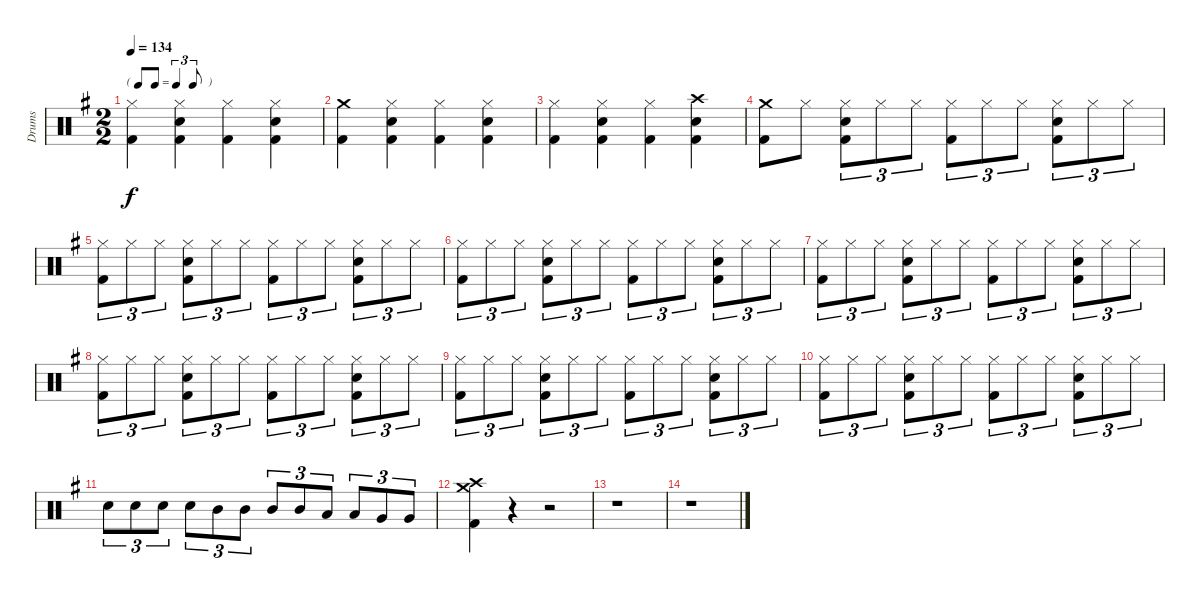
\track ("Drums" "Drums") {instrument percussion}
\staff {score}
\articulation defaults
\ts (2 2)
\tf triplet8th
\tempo 134
\clef neutral
\ks g
("Hi-Hat (closed)" "Kick (hit) 2").4{dy f} ("Hi-Hat (closed)" "Snare (hit) 2" "Kick (hit) 2").4 ("Hi-Hat (closed)" "Kick (hit) 2").4 ("Hi-Hat (closed)" "Snare (hit) 2" "Kick (hit) 2").4 |
("Crash medium (hit)" "Kick (hit) 2").4 ("Hi-Hat (closed)" "Snare (hit) 2" "Kick (hit) 2").4 ("Hi-Hat (closed)" "Kick (hit) 2").4 ("Hi-Hat (closed)" "Snare (hit) 2" "Kick (hit) 2").4 |
("Hi-Hat (closed)" "Kick (hit) 2").4 ("Hi-Hat (closed)" "Snare (hit) 2" "Kick (hit) 2").4 ("Hi-Hat (closed)" "Kick (hit) 2").4 ("Crash high (hit)" "Snare (hit) 2" "Kick (hit) 2").4 |
("Crash medium (hit)" "Kick (hit) 2").8 "Hi-Hat (closed)".8 ("Hi-Hat (closed)" "Snare (hit) 2" "Kick (hit) 2").8{tu (3 2)} "Hi-Hat (closed)".8{tu (3 2)} "Hi-Hat (closed)".8{tu (3 2)} ("Hi-Hat (closed)" "Kick (hit) 2").8{tu (3 2)} "Hi-Hat (closed)".8{tu (3 2)} "Hi-Hat (closed)".8{tu (3 2)} ("Hi-Hat (closed)" "Snare (hit) 2" "Kick (hit) 2").8{tu (3 2)} "Hi-Hat (closed)".8{tu (3 2)} "Hi-Hat (closed)".8{tu (3 2)} |
("Hi-Hat (closed)" "Kick (hit) 2").8{tu (3 2)} "Hi-Hat (closed)".8{tu (3 2)} "Hi-Hat (closed)".8{tu (3 2)} ("Hi-Hat (closed)" "Snare (hit) 2" "Kick (hit) 2").8{tu (3 2)} "Hi-Hat (closed)".8{tu (3 2)} "Hi-Hat (closed)".8{tu (3 2)} ("Hi-Hat (closed)" "Kick (hit) 2").8{tu (3 2)} "Hi-Hat (closed)".8{tu (3 2)} "Hi-Hat (closed)".8{tu (3 2)} ("Hi-Hat (closed)" "Snare (hit) 2" "Kick (hit) 2").8{tu (3 2)} "Hi-Hat (closed)".8{tu (3 2)} "Hi-Hat (closed)".8{tu (3 2)} |
("Hi-Hat (closed)" "Kick (hit) 2").8{tu (3 2)} "Hi-Hat (closed)".8{tu (3 2)} "Hi-Hat (closed)".8{tu (3 2)} ("Hi-Hat (closed)" "Snare (hit) 2" "Kick (hit) 2").8{tu (3 2)} "Hi-Hat (closed)".8{tu (3 2)} "Hi-Hat (closed)".8{tu (3 2)} ("Hi-Hat (closed)" "Kick (hit) 2").8{tu (3 2)} "Hi-Hat (closed)".8{tu (3 2)} "Hi-Hat (closed)".8{tu (3 2)} ("Hi-Hat (closed)" "Snare (hit) 2" "Kick (hit) 2").8{tu (3 2)} "Hi-Hat (closed)".8{tu (3 2)} "Hi-Hat (closed)".8{tu (3 2)} |
("Hi-Hat (closed)" "Kick (hit) 2").8{tu (3 2)} "Hi-Hat (closed)".8{tu (3 2)} "Hi-Hat (closed)".8{tu (3 2)} ("Hi-Hat (closed)" "Snare (hit) 2" "Kick (hit) 2").8{tu (3 2)} "Hi-Hat (closed)".8{tu (3 2)} "Hi-Hat (closed)".8{tu (3 2)} ("Hi-Hat (closed)" "Kick (hit) 2").8{tu (3 2)} "Hi-Hat (closed)".8{tu (3 2)} "Hi-Hat (closed)".8{tu (3 2)} ("Hi-Hat (closed)" "Snare (hit) 2" "Kick (hit) 2").8{tu (3 2)} "Hi-Hat (closed)".8{tu (3 2)} "Hi-Hat (closed)".8{tu (3 2)} |
("Hi-Hat (closed)" "Kick (hit) 2").8{tu (3 2)} "Hi-Hat (closed)".8{tu (3 2)} "Hi-Hat (closed)".8{tu (3 2)} ("Hi-Hat (closed)" "Snare (hit) 2" "Kick (hit) 2").8{tu (3 2)} "Hi-Hat (closed)".8{tu (3 2)} "Hi-Hat (closed)".8{tu (3 2)} ("Hi-Hat (closed)" "Kick (hit) 2").8{tu (3 2)} "Hi-Hat (closed)".8{tu (3 2)} "Hi-Hat (closed)".8{tu (3 2)} ("Hi-Hat (closed)" "Snare (hit) 2" "Kick (hit) 2").8{tu (3 2)} "Hi-Hat (closed)".8{tu (3 2)} "Hi-Hat (closed)".8{tu (3 2)} |
("Hi-Hat (closed)" "Kick (hit) 2").8{tu (3 2)} "Hi-Hat (closed)".8{tu (3 2)} "Hi-Hat (closed)".8{tu (3 2)} ("Hi-Hat (closed)" "Snare (hit) 2" "Kick (hit) 2").8{tu (3 2)} "Hi-Hat (closed)".8{tu (3 2)} "Hi-Hat (closed)".8{tu (3 2)} ("Hi-Hat (closed)" "Kick (hit) 2").8{tu (3 2)} "Hi-Hat (closed)".8{tu (3 2)} "Hi-Hat (closed)".8{tu (3 2)} ("Hi-Hat (closed)" "Snare (hit) 2" "Kick (hit) 2").8{tu (3 2)} "Hi-Hat (closed)".8{tu (3 2)} "Hi-Hat (closed)".8{tu (3 2)} |
("Hi-Hat (closed)" "Kick (hit) 2").8{tu (3 2)} "Hi-Hat (closed)".8{tu (3 2)} "Hi-Hat (closed)".8{tu (3 2)} ("Hi-Hat (closed)" "Snare (hit) 2" "Kick (hit) 2").8{tu (3 2)} "Hi-Hat (closed)".8{tu (3 2)} "Hi-Hat (closed)".8{tu (3 2)} ("Hi-Hat (closed)" "Kick (hit) 2").8{tu (3 2)} "Hi-Hat (closed)".8{tu (3 2)} "Hi-Hat (closed)".8{tu (3 2)} ("Hi-Hat (closed)" "Snare (hit) 2" "Kick (hit) 2").8{tu (3 2)} "Hi-Hat (closed)".8{tu (3 2)} "Hi-Hat (closed)".8{tu (3 2)} |
"Snare (hit) 2".8{tu (3 2)} "Snare (hit) 2".8{tu (3 2)} "Snare (hit) 2".8{tu (3 2)} "Snare (hit) 2".8{tu (3 2)} "Mid Tom (hit)".8{tu (3 2)} "Mid Tom (hit)".8{tu (3 2)} "Mid Tom (hit)".8{tu (3 2)} "Mid Tom (hit)".8{tu (3 2)} "Low Tom (hit)".8{tu (3 2)} "Low Tom (hit)".8{tu (3 2)} "Very Low Tom (hit)".8{tu (3 2)} "Very Low Tom (hit)".8{tu (3 2)} |
("Crash medium (hit)" "Crash high (hit)" "Kick (hit) 2").4 r.4 r.2 |
r.1 |
r.1
